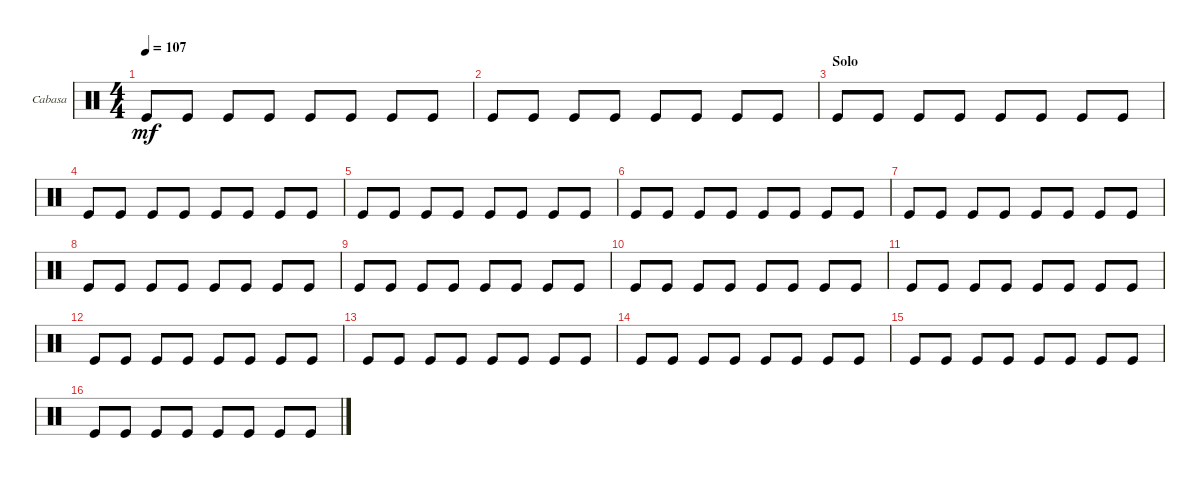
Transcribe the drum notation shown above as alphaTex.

\defaultSystemsLayout 4
\bracketExtendMode groupsimilarinstruments
\firstSystemTrackNameOrientation horizontal
\otherSystemsTrackNameOrientation horizontal
\track ("Cabasa" "Cabasa") {instrument percussion}
\staff {score}
\articulation defaults
\ts (4 4)
\tempo 107
\clef neutral
\scale
0.333333
\ks c "Kick (hit)".8{dy mf} "Kick (hit)".8 "Kick (hit)".8 "Kick (hit)".8 "Kick (hit)".8 "Kick (hit)".8 "Kick (hit)".8 "Kick (hit)".8
|
\scale
0.333333 "Kick (hit)".8 "Kick (hit)".8 "Kick (hit)".8 "Kick (hit)".8 "Kick (hit)".8 "Kick (hit)".8 "Kick (hit)".8 "Kick (hit)".8 |
\section ("" "Solo")
\scale
0.333333 "Kick (hit)".8 "Kick (hit)".8 "Kick (hit)".8 "Kick (hit)".8 "Kick (hit)".8 "Kick (hit)".8 "Kick (hit)".8 "Kick (hit)".8 |
\scale
0.333333 "Kick (hit)".8 "Kick (hit)".8 "Kick (hit)".8 "Kick (hit)".8 "Kick (hit)".8 "Kick (hit)".8 "Kick (hit)".8 "Kick (hit)".8 |
"Kick (hit)".8 "Kick (hit)".8 "Kick (hit)".8 "Kick (hit)".8 "Kick (hit)".8 "Kick (hit)".8 "Kick (hit)".8 "Kick (hit)".8 |
"Kick (hit)".8 "Kick (hit)".8 "Kick (hit)".8 "Kick (hit)".8 "Kick (hit)".8 "Kick (hit)".8 "Kick (hit)".8 "Kick (hit)".8 |
"Kick (hit)".8 "Kick (hit)".8 "Kick (hit)".8 "Kick (hit)".8 "Kick (hit)".8 "Kick (hit)".8 "Kick (hit)".8 "Kick (hit)".8 |
"Kick (hit)".8 "Kick (hit)".8 "Kick (hit)".8 "Kick (hit)".8 "Kick (hit)".8 "Kick (hit)".8 "Kick (hit)".8 "Kick (hit)".8 |
"Kick (hit)".8 "Kick (hit)".8 "Kick (hit)".8 "Kick (hit)".8 "Kick (hit)".8 "Kick (hit)".8 "Kick (hit)".8 "Kick (hit)".8 |
"Kick (hit)".8 "Kick (hit)".8 "Kick (hit)".8 "Kick (hit)".8 "Kick (hit)".8 "Kick (hit)".8 "Kick (hit)".8 "Kick (hit)".8 |
"Kick (hit)".8 "Kick (hit)".8 "Kick (hit)".8 "Kick (hit)".8 "Kick (hit)".8 "Kick (hit)".8 "Kick (hit)".8 "Kick (hit)".8 |
"Kick (hit)".8 "Kick (hit)".8 "Kick (hit)".8 "Kick (hit)".8 "Kick (hit)".8 "Kick (hit)".8 "Kick (hit)".8 "Kick (hit)".8 |
"Kick (hit)".8 "Kick (hit)".8 "Kick (hit)".8 "Kick (hit)".8 "Kick (hit)".8 "Kick (hit)".8 "Kick (hit)".8 "Kick (hit)".8 |
"Kick (hit)".8 "Kick (hit)".8 "Kick (hit)".8 "Kick (hit)".8 "Kick (hit)".8 "Kick (hit)".8 "Kick (hit)".8 "Kick (hit)".8 |
"Kick (hit)".8 "Kick (hit)".8 "Kick (hit)".8 "Kick (hit)".8 "Kick (hit)".8 "Kick (hit)".8 "Kick (hit)".8 "Kick (hit)".8 |
"Kick (hit)".8 "Kick (hit)".8 "Kick (hit)".8 "Kick (hit)".8 "Kick (hit)".8 "Kick (hit)".8 "Kick (hit)".8 "Kick (hit)".8
